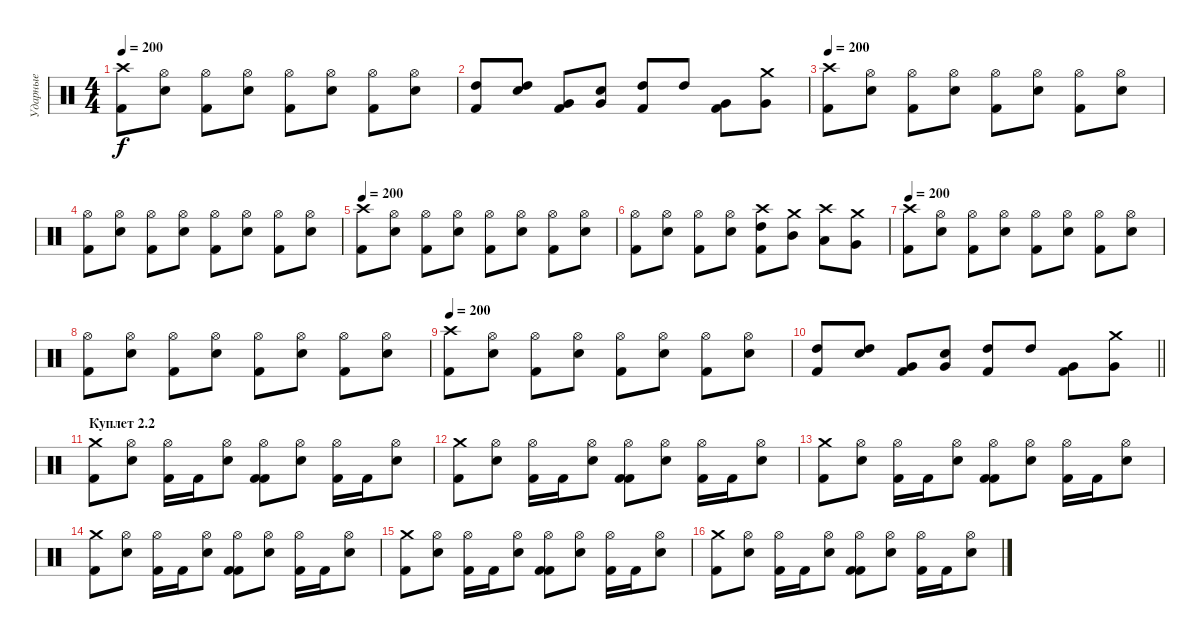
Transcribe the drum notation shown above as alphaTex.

\track ("Ударные" "Ударные") {instrument percussion}
\staff {score}
\articulation defaults
\ts (4 4)
\tempo 200
\clef neutral
\ks c
("Crash high (hit)" "Kick (hit) 2").8{dy f} ("Hi-Hat (open)" "Snare (hit) 2").8 ("Hi-Hat (open)" "Kick (hit) 2").8 ("Hi-Hat (open)" "Snare (hit) 2").8 ("Hi-Hat (open)" "Kick (hit) 2").8 ("Hi-Hat (open)" "Snare (hit) 2").8 ("Hi-Hat (open)" "Kick (hit) 2").8 ("Hi-Hat (open)" "Snare (hit) 2").8 |
("High Tom (hit)" "Kick (hit) 2").8 ("High Tom (hit)" "Snare (hit) 2").8 ("Very Low Tom (hit)" "Kick (hit) 2").8 ("Very Low Tom (hit)" "Snare (hit) 2").8 ("High Tom (hit)" "Kick (hit) 2").8 "High Tom (hit)".8 ("Very Low Tom (hit)" "Kick (hit) 2").8 ("Crash medium (hit)" "Very Low Tom (hit)").8 |
\tempo 200
("Crash high (hit)" "Kick (hit) 2").8 ("Hi-Hat (open)" "Snare (hit) 2").8 ("Hi-Hat (open)" "Kick (hit) 2").8 ("Hi-Hat (open)" "Snare (hit) 2").8 ("Hi-Hat (open)" "Kick (hit) 2").8 ("Hi-Hat (open)" "Snare (hit) 2").8 ("Hi-Hat (open)" "Kick (hit) 2").8 ("Hi-Hat (open)" "Snare (hit) 2").8 |
("Hi-Hat (open)" "Kick (hit) 2").8 ("Hi-Hat (open)" "Snare (hit) 2").8 ("Hi-Hat (open)" "Kick (hit) 2").8 ("Hi-Hat (open)" "Snare (hit) 2").8 ("Hi-Hat (open)" "Kick (hit) 2").8 ("Hi-Hat (open)" "Snare (hit) 2").8 ("Hi-Hat (open)" "Kick (hit) 2").8 ("Hi-Hat (open)" "Snare (hit) 2").8 |
\tempo 200
("Crash high (hit)" "Kick (hit) 2").8 ("Hi-Hat (open)" "Snare (hit) 2").8 ("Hi-Hat (open)" "Kick (hit) 2").8 ("Hi-Hat (open)" "Snare (hit) 2").8 ("Hi-Hat (open)" "Kick (hit) 2").8 ("Hi-Hat (open)" "Snare (hit) 2").8 ("Hi-Hat (open)" "Kick (hit) 2").8 ("Hi-Hat (open)" "Snare (hit) 2").8 |
("Hi-Hat (open)" "Kick (hit) 2").8 ("Hi-Hat (open)" "Snare (hit) 2").8 ("Hi-Hat (open)" "Kick (hit) 2").8 ("Hi-Hat (open)" "Snare (hit) 2").8 ("Crash high (hit)" "High Tom (hit)" "Kick (hit) 2").8 ("Crash medium (hit)" "Mid Tom (hit)").8 ("Crash high (hit)" "Low Tom (hit)").8 ("Crash medium (hit)" "Very Low Tom (hit)").8 |
\tempo 200
("Crash high (hit)" "Kick (hit) 2").8 ("Hi-Hat (open)" "Snare (hit) 2").8 ("Hi-Hat (open)" "Kick (hit) 2").8 ("Hi-Hat (open)" "Snare (hit) 2").8 ("Hi-Hat (open)" "Kick (hit) 2").8 ("Hi-Hat (open)" "Snare (hit) 2").8 ("Hi-Hat (open)" "Kick (hit) 2").8 ("Hi-Hat (open)" "Snare (hit) 2").8 |
("Hi-Hat (open)" "Kick (hit) 2").8 ("Hi-Hat (open)" "Snare (hit) 2").8 ("Hi-Hat (open)" "Kick (hit) 2").8 ("Hi-Hat (open)" "Snare (hit) 2").8 ("Hi-Hat (open)" "Kick (hit) 2").8 ("Hi-Hat (open)" "Snare (hit) 2").8 ("Hi-Hat (open)" "Kick (hit) 2").8 ("Hi-Hat (open)" "Snare (hit) 2").8 |
\tempo 200
("Crash high (hit)" "Kick (hit) 2").8 ("Hi-Hat (open)" "Snare (hit) 2").8 ("Hi-Hat (open)" "Kick (hit) 2").8 ("Hi-Hat (open)" "Snare (hit) 2").8 ("Hi-Hat (open)" "Kick (hit) 2").8 ("Hi-Hat (open)" "Snare (hit) 2").8 ("Hi-Hat (open)" "Kick (hit) 2").8 ("Hi-Hat (open)" "Snare (hit) 2").8 |
\barLineRight lightlight
("High Tom (hit)" "Kick (hit) 2").8 ("High Tom (hit)" "Snare (hit) 2").8 ("Very Low Tom (hit)" "Kick (hit) 2").8 ("Very Low Tom (hit)" "Snare (hit) 2").8 ("High Tom (hit)" "Kick (hit) 2").8 "High Tom (hit)".8 ("Very Low Tom (hit)" "Kick (hit) 2").8 ("Crash medium (hit)" "Very Low Tom (hit)").8 |
\section ("" "Куплет 2.2")
("Kick (hit) 2" "Crash medium (hit)").8 ("Hi-Hat (open)" "Electric Snare (hit)").8 ("Kick (hit) 2" "Hi-Hat (open)").16 "Kick (hit) 2".16 ("Hi-Hat (open)" "Electric Snare (hit)").8 ("Kick (hit) 2" "Kick (hit) 2" "Hi-Hat (open)").8 ("Hi-Hat (open)" "Electric Snare (hit)").8 ("Kick (hit) 2" "Hi-Hat (open)").16 "Kick (hit) 2".16 ("Hi-Hat (open)" "Electric Snare (hit)").8 |
("Kick (hit) 2" "Crash medium (hit)").8 ("Hi-Hat (open)" "Electric Snare (hit)").8 ("Kick (hit) 2" "Hi-Hat (open)").16 "Kick (hit) 2".16 ("Hi-Hat (open)" "Electric Snare (hit)").8 ("Kick (hit) 2" "Kick (hit) 2" "Hi-Hat (open)").8 ("Hi-Hat (open)" "Electric Snare (hit)").8 ("Kick (hit) 2" "Hi-Hat (open)").16 "Kick (hit) 2".16 ("Hi-Hat (open)" "Electric Snare (hit)").8 |
("Kick (hit) 2" "Crash medium (hit)").8 ("Hi-Hat (open)" "Electric Snare (hit)").8 ("Kick (hit) 2" "Hi-Hat (open)").16 "Kick (hit) 2".16 ("Hi-Hat (open)" "Electric Snare (hit)").8 ("Kick (hit) 2" "Kick (hit) 2" "Hi-Hat (open)").8 ("Hi-Hat (open)" "Electric Snare (hit)").8 ("Kick (hit) 2" "Hi-Hat (open)").16 "Kick (hit) 2".16 ("Hi-Hat (open)" "Electric Snare (hit)").8 |
("Kick (hit) 2" "Crash medium (hit)").8 ("Hi-Hat (open)" "Electric Snare (hit)").8 ("Kick (hit) 2" "Hi-Hat (open)").16 "Kick (hit) 2".16 ("Hi-Hat (open)" "Electric Snare (hit)").8 ("Kick (hit) 2" "Kick (hit) 2" "Hi-Hat (open)").8 ("Hi-Hat (open)" "Electric Snare (hit)").8 ("Kick (hit) 2" "Hi-Hat (open)").16 "Kick (hit) 2".16 ("Hi-Hat (open)" "Electric Snare (hit)").8 |
("Kick (hit) 2" "Crash medium (hit)").8 ("Hi-Hat (open)" "Electric Snare (hit)").8 ("Kick (hit) 2" "Hi-Hat (open)").16 "Kick (hit) 2".16 ("Hi-Hat (open)" "Electric Snare (hit)").8 ("Kick (hit) 2" "Kick (hit) 2" "Hi-Hat (open)").8 ("Hi-Hat (open)" "Electric Snare (hit)").8 ("Kick (hit) 2" "Hi-Hat (open)").16 "Kick (hit) 2".16 ("Hi-Hat (open)" "Electric Snare (hit)").8 |
("Kick (hit) 2" "Crash medium (hit)").8 ("Hi-Hat (open)" "Electric Snare (hit)").8 ("Kick (hit) 2" "Hi-Hat (open)").16 "Kick (hit) 2".16 ("Hi-Hat (open)" "Electric Snare (hit)").8 ("Kick (hit) 2" "Kick (hit) 2" "Hi-Hat (open)").8 ("Hi-Hat (open)" "Electric Snare (hit)").8 ("Kick (hit) 2" "Hi-Hat (open)").16 "Kick (hit) 2".16 ("Hi-Hat (open)" "Electric Snare (hit)").8
